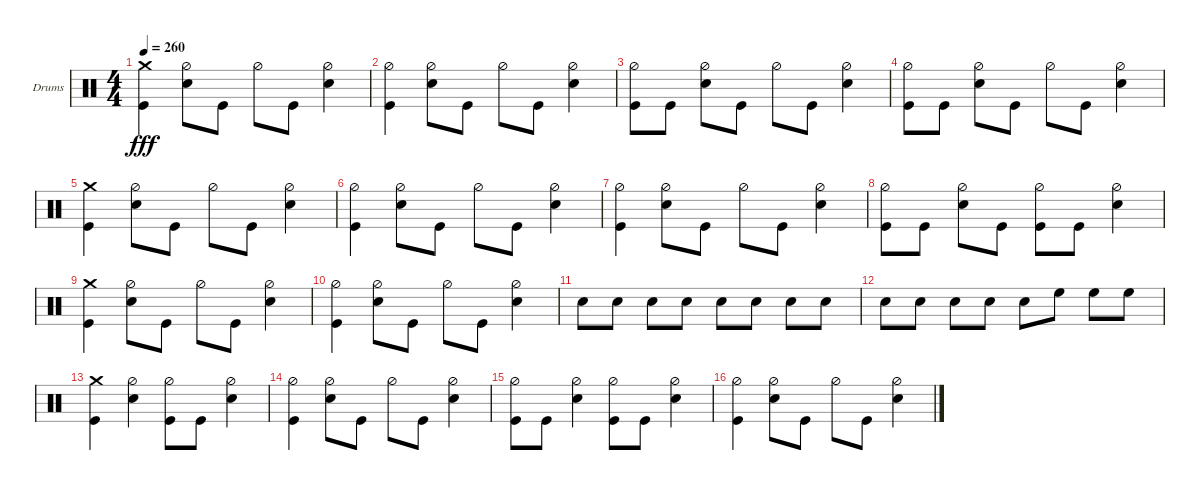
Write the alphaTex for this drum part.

\defaultSystemsLayout 4
\bracketExtendMode groupsimilarinstruments
\firstSystemTrackNameOrientation horizontal
\otherSystemsTrackNameOrientation horizontal
\track ("Stefan Schwarzmann" "Drums") {instrument percussion}
\staff {score}
\articulation defaults
\ts (4 4)
\tempo 260
\clef neutral
\ks c
("Kick (hit)" "Crash medium (hit)").4{dy fff} ("Snare (hit) 2" "Hi-Hat (half)").8 "Kick (hit)".8 "Hi-Hat (half)".8 "Kick (hit)".8 ("Snare (hit) 2" "Hi-Hat (half)").4 |
("Kick (hit)" "Hi-Hat (half)").4 ("Snare (hit) 2" "Hi-Hat (half)").8 "Kick (hit)".8 "Hi-Hat (half)".8 "Kick (hit)".8 ("Snare (hit) 2" "Hi-Hat (half)").4 |
("Kick (hit)" "Hi-Hat (half)").8 "Kick (hit)".8 ("Snare (hit) 2" "Hi-Hat (half)").8 "Kick (hit)".8 "Hi-Hat (half)".8 "Kick (hit)".8 ("Snare (hit) 2" "Hi-Hat (half)").4 |
("Kick (hit)" "Hi-Hat (half)").8 "Kick (hit)".8 ("Snare (hit) 2" "Hi-Hat (half)").8 "Kick (hit)".8 "Hi-Hat (half)".8 "Kick (hit)".8 ("Snare (hit) 2" "Hi-Hat (half)").4 |
("Kick (hit)" "Crash medium (hit)").4 ("Snare (hit) 2" "Hi-Hat (half)").8 "Kick (hit)".8 "Hi-Hat (half)".8 "Kick (hit)".8 ("Snare (hit) 2" "Hi-Hat (half)").4 |
("Kick (hit)" "Hi-Hat (half)").4 ("Snare (hit) 2" "Hi-Hat (half)").8 "Kick (hit)".8 "Hi-Hat (half)".8 "Kick (hit)".8 ("Snare (hit) 2" "Hi-Hat (half)").4 |
("Kick (hit)" "Hi-Hat (half)").4 ("Snare (hit) 2" "Hi-Hat (half)").8 "Kick (hit)".8 "Hi-Hat (half)".8 "Kick (hit)".8 ("Snare (hit) 2" "Hi-Hat (half)").4 |
("Kick (hit)" "Hi-Hat (half)").8 "Kick (hit)".8 ("Snare (hit) 2" "Hi-Hat (half)").8 "Kick (hit)".8 ("Kick (hit)" "Hi-Hat (half)").8 "Kick (hit)".8 ("Snare (hit) 2" "Hi-Hat (half)").4 |
("Kick (hit)" "Crash medium (hit)").4 ("Snare (hit) 2" "Hi-Hat (half)").8 "Kick (hit)".8 "Hi-Hat (half)".8 "Kick (hit)".8 ("Snare (hit) 2" "Hi-Hat (half)").4 |
("Kick (hit)" "Hi-Hat (half)").4 ("Snare (hit) 2" "Hi-Hat (half)").8 "Kick (hit)".8 "Hi-Hat (half)".8 "Kick (hit)".8 ("Snare (hit) 2" "Hi-Hat (half)").4 |
"Snare (hit) 2".8 "Snare (hit) 2".8 "Snare (hit) 2".8 "Snare (hit) 2".8 "Snare (hit) 2".8 "Snare (hit) 2".8 "Snare (hit) 2".8 "Snare (hit) 2".8 |
"Snare (hit) 2".8 "Snare (hit) 2".8 "Snare (hit) 2".8 "Snare (hit) 2".8 "Snare (hit) 2".8 "High Floor Tom (hit)".8 "High Floor Tom (hit)".8 "High Floor Tom (hit)".8 |
("Kick (hit)" "Crash medium (hit)").4 ("Snare (hit) 2" "Hi-Hat (half)").4 ("Kick (hit)" "Hi-Hat (half)").8 "Kick (hit)".8 ("Snare (hit) 2" "Hi-Hat (half)").4 |
("Kick (hit)" "Hi-Hat (half)").4 ("Snare (hit) 2" "Hi-Hat (half)").8 "Kick (hit)".8 "Hi-Hat (half)".8 "Kick (hit)".8 ("Snare (hit) 2" "Hi-Hat (half)").4 |
("Kick (hit)" "Hi-Hat (half)").8 "Kick (hit)".8 ("Snare (hit) 2" "Hi-Hat (half)").4 ("Kick (hit)" "Hi-Hat (half)").8 "Kick (hit)".8 ("Snare (hit) 2" "Hi-Hat (half)").4 |
("Kick (hit)" "Hi-Hat (half)").4 ("Snare (hit) 2" "Hi-Hat (half)").8 "Kick (hit)".8 "Hi-Hat (half)".8 "Kick (hit)".8 ("Snare (hit) 2" "Hi-Hat (half)").4
